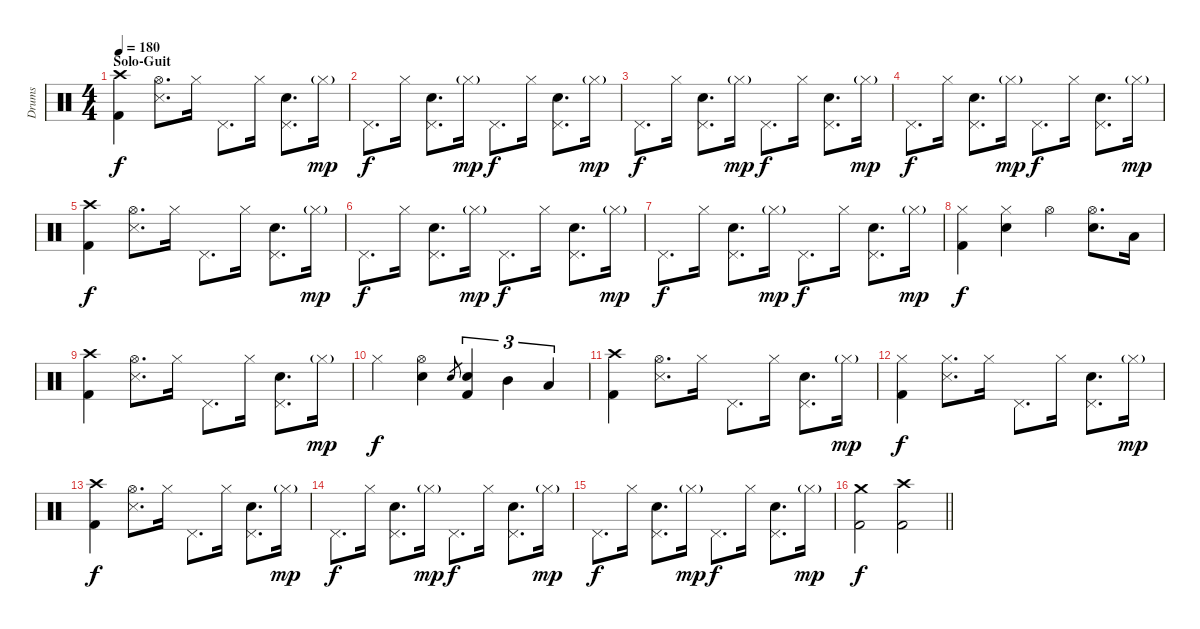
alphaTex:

\track ("Drums" "Drums") {instrument percussion}
\staff {score}
\articulation defaults
\ts (4 4)
\section ("" "Solo-Guit")
\tempo 180
\clef neutral
\ks c
("Crash high (hit)" "Kick (hit) 2").4{dy f} ("Hi-Hat (open)" "Snare (side stick) 3").8{d} "Hi-Hat (closed)".16 "Pedal Hi-Hat (hit)".8{d} "Hi-Hat (closed)".16 ("Pedal Hi-Hat (hit)" "Snare (hit) 2").8{d} "Hi-Hat (closed)"{g}.16{dy mp} |
"Pedal Hi-Hat (hit)".8{d dy f} "Hi-Hat (closed)".16 ("Pedal Hi-Hat (hit)" "Snare (hit) 2").8{d} "Hi-Hat (closed)"{g}.16{dy mp} "Pedal Hi-Hat (hit)".8{d dy f} "Hi-Hat (closed)".16 ("Pedal Hi-Hat (hit)" "Snare (hit) 2").8{d} "Hi-Hat (closed)"{g}.16{dy mp} |
"Pedal Hi-Hat (hit)".8{d dy f} "Hi-Hat (closed)".16 ("Pedal Hi-Hat (hit)" "Snare (hit) 2").8{d} "Hi-Hat (closed)"{g}.16{dy mp} "Pedal Hi-Hat (hit)".8{d dy f} "Hi-Hat (closed)".16 ("Pedal Hi-Hat (hit)" "Snare (hit) 2").8{d} "Hi-Hat (closed)"{g}.16{dy mp} |
"Pedal Hi-Hat (hit)".8{d dy f} "Hi-Hat (closed)".16 ("Pedal Hi-Hat (hit)" "Snare (hit) 2").8{d} "Hi-Hat (closed)"{g}.16{dy mp} "Pedal Hi-Hat (hit)".8{d dy f} "Hi-Hat (closed)".16 ("Pedal Hi-Hat (hit)" "Snare (hit) 2").8{d} "Hi-Hat (closed)"{g}.16{dy mp} |
("Crash high (hit)" "Kick (hit) 2").4{dy f} ("Hi-Hat (open)" "Snare (side stick) 3").8{d} "Hi-Hat (closed)".16 "Pedal Hi-Hat (hit)".8{d} "Hi-Hat (closed)".16 ("Pedal Hi-Hat (hit)" "Snare (hit) 2").8{d} "Hi-Hat (closed)"{g}.16{dy mp} |
"Pedal Hi-Hat (hit)".8{d dy f} "Hi-Hat (closed)".16 ("Pedal Hi-Hat (hit)" "Snare (hit) 2").8{d} "Hi-Hat (closed)"{g}.16{dy mp} "Pedal Hi-Hat (hit)".8{d dy f} "Hi-Hat (closed)".16 ("Pedal Hi-Hat (hit)" "Snare (hit) 2").8{d} "Hi-Hat (closed)"{g}.16{dy mp} |
"Pedal Hi-Hat (hit)".8{d dy f} "Hi-Hat (closed)".16 ("Pedal Hi-Hat (hit)" "Snare (hit) 2").8{d} "Hi-Hat (closed)"{g}.16{dy mp} "Pedal Hi-Hat (hit)".8{d dy f} "Hi-Hat (closed)".16 ("Pedal Hi-Hat (hit)" "Snare (hit) 2").8{d} "Hi-Hat (closed)"{g}.16{dy mp} |
("Hi-Hat (closed)" "Kick (hit) 2").4{dy f} ("Hi-Hat (closed)" "Snare (hit) 2").4 "Hi-Hat (open)".4 ("Hi-Hat (open)" "Snare (hit) 2").8{d} "Low Tom (hit)".16 |
("Crash high (hit)" "Kick (hit) 2").4 ("Hi-Hat (open)" "Snare (side stick) 3").8{d} "Hi-Hat (closed)".16 "Pedal Hi-Hat (hit)".8{d} "Hi-Hat (closed)".16 ("Pedal Hi-Hat (hit)" "Snare (hit) 2").8{d} "Hi-Hat (closed)"{g}.16{dy mp} |
"Hi-Hat (closed)".4{dy f} ("Hi-Hat (open)" "Snare (hit) 2").4 "Snare (hit) 2".8{gr} ("Snare (hit) 2" "Kick (hit) 2").4{tu (3 2)} "Mid Tom (hit)".4{tu (3 2)} "Low Tom (hit)".4{tu (3 2)} |
("Crash high (hit)" "Kick (hit) 2").4 ("Hi-Hat (open)" "Snare (side stick) 3").8{d} "Hi-Hat (closed)".16 "Pedal Hi-Hat (hit)".8{d} "Hi-Hat (closed)".16 ("Pedal Hi-Hat (hit)" "Snare (hit) 2").8{d} "Hi-Hat (closed)"{g}.16{dy mp} |
("Hi-Hat (closed)" "Kick (hit) 2").4{dy f} ("Hi-Hat (closed)" "Snare (side stick) 3").8{d} "Hi-Hat (closed)".16 "Pedal Hi-Hat (hit)".8{d} "Hi-Hat (closed)".16 ("Pedal Hi-Hat (hit)" "Snare (hit) 2").8{d} "Hi-Hat (closed)"{g}.16{dy mp} |
("Crash high (hit)" "Kick (hit) 2").4{dy f} ("Hi-Hat (open)" "Snare (side stick) 3").8{d} "Hi-Hat (closed)".16 "Pedal Hi-Hat (hit)".8{d} "Hi-Hat (closed)".16 ("Pedal Hi-Hat (hit)" "Snare (hit) 2").8{d} "Hi-Hat (closed)"{g}.16{dy mp} |
"Pedal Hi-Hat (hit)".8{d dy f} "Hi-Hat (closed)".16 ("Pedal Hi-Hat (hit)" "Snare (hit) 2").8{d} "Hi-Hat (closed)"{g}.16{dy mp} "Pedal Hi-Hat (hit)".8{d dy f} "Hi-Hat (closed)".16 ("Pedal Hi-Hat (hit)" "Snare (hit) 2").8{d} "Hi-Hat (closed)"{g}.16{dy mp} |
"Pedal Hi-Hat (hit)".8{d dy f} "Hi-Hat (closed)".16 ("Pedal Hi-Hat (hit)" "Snare (hit) 2").8{d} "Hi-Hat (closed)"{g}.16{dy mp} "Pedal Hi-Hat (hit)".8{d dy f} "Hi-Hat (closed)".16 ("Pedal Hi-Hat (hit)" "Snare (hit) 2").8{d} "Hi-Hat (closed)"{g}.16{dy mp} |
\barLineRight lightlight
("Crash medium (hit)" "Kick (hit) 2").2{dy f} ("Crash high (hit)" "Kick (hit) 2").2
